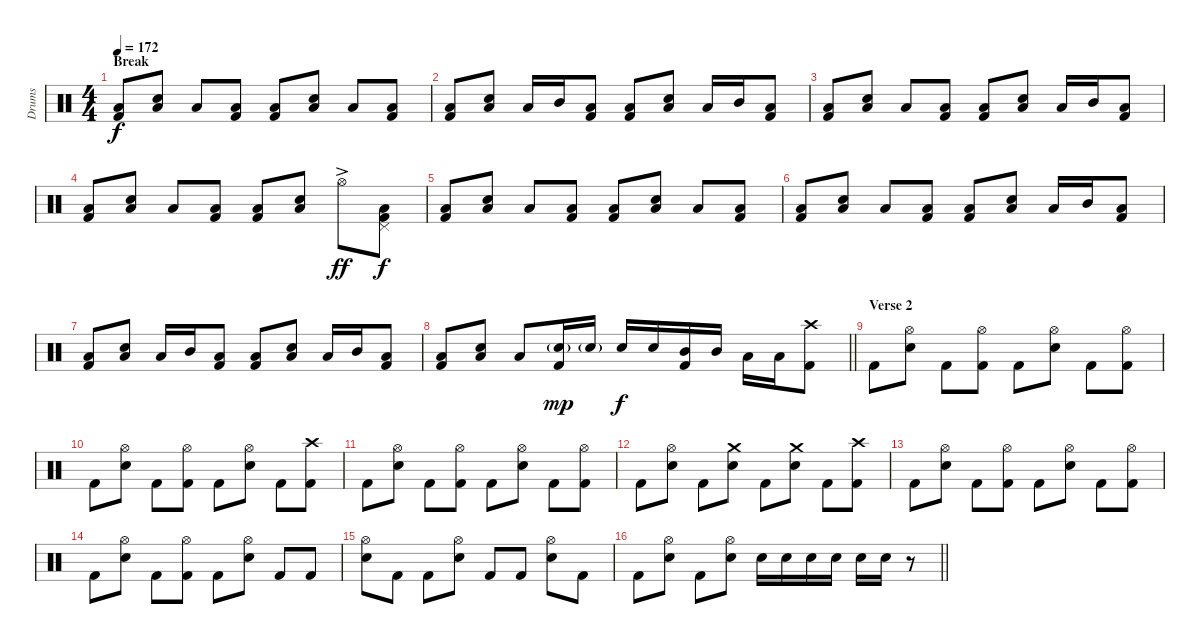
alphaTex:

\track ("Drums" "Drums") {instrument percussion}
\staff {score}
\articulation defaults
\ts (4 4)
\section ("" "Break")
\tempo 172
\clef neutral
\ks c
("Low Floor Tom (hit)" "Kick (hit) 2").8{dy f} ("Electric Snare (hit)" "Low Floor Tom (hit)").8 "Low Floor Tom (hit)".8 ("Low Floor Tom (hit)" "Kick (hit) 2").8 ("Low Floor Tom (hit)" "Kick (hit) 2").8 ("Electric Snare (hit)" "Low Floor Tom (hit)").8 "Low Floor Tom (hit)".8 ("Low Floor Tom (hit)" "Kick (hit) 2").8 |
("Low Floor Tom (hit)" "Kick (hit) 2").8 ("Electric Snare (hit)" "Low Floor Tom (hit)").8 "Low Floor Tom (hit)".16 "Mid Tom (hit)".16 ("Low Floor Tom (hit)" "Kick (hit) 2").8 ("Low Floor Tom (hit)" "Kick (hit) 2").8 ("Electric Snare (hit)" "Low Floor Tom (hit)").8 "Low Floor Tom (hit)".16 "Mid Tom (hit)".16 ("Low Floor Tom (hit)" "Kick (hit) 2").8 |
("Low Floor Tom (hit)" "Kick (hit) 2").8 ("Electric Snare (hit)" "Low Floor Tom (hit)").8 "Low Floor Tom (hit)".8 ("Low Floor Tom (hit)" "Kick (hit) 2").8 ("Low Floor Tom (hit)" "Kick (hit) 2").8 ("Electric Snare (hit)" "Low Floor Tom (hit)").8 "Low Floor Tom (hit)".16 "Mid Tom (hit)".16 ("Low Floor Tom (hit)" "Kick (hit) 2").8 |
("Low Floor Tom (hit)" "Kick (hit) 2").8 ("Electric Snare (hit)" "Low Floor Tom (hit)").8 "Low Floor Tom (hit)".8 ("Low Floor Tom (hit)" "Kick (hit) 2").8 ("Low Floor Tom (hit)" "Kick (hit) 2").8 ("Electric Snare (hit)" "Low Floor Tom (hit)").8 "Hi-Hat (open)"{ac}.8{dy ff} ("Pedal Hi-Hat (hit)" "Low Floor Tom (hit)" "Kick (hit) 2").8{dy f} |
("Low Floor Tom (hit)" "Kick (hit) 2").8 ("Electric Snare (hit)" "Low Floor Tom (hit)").8 "Low Floor Tom (hit)".8 ("Low Floor Tom (hit)" "Kick (hit) 2").8 ("Low Floor Tom (hit)" "Kick (hit) 2").8 ("Electric Snare (hit)" "Low Floor Tom (hit)").8 "Low Floor Tom (hit)".8 ("Low Floor Tom (hit)" "Kick (hit) 2").8 |
("Low Floor Tom (hit)" "Kick (hit) 2").8 ("Electric Snare (hit)" "Low Floor Tom (hit)").8 "Low Floor Tom (hit)".8 ("Low Floor Tom (hit)" "Kick (hit) 2").8 ("Low Floor Tom (hit)" "Kick (hit) 2").8 ("Electric Snare (hit)" "Low Floor Tom (hit)").8 "Low Floor Tom (hit)".16 "Mid Tom (hit)".16 ("Low Floor Tom (hit)" "Kick (hit) 2").8 |
("Low Floor Tom (hit)" "Kick (hit) 2").8 ("Electric Snare (hit)" "Low Floor Tom (hit)").8 "Low Floor Tom (hit)".16 "Mid Tom (hit)".16 ("Low Floor Tom (hit)" "Kick (hit) 2").8 ("Low Floor Tom (hit)" "Kick (hit) 2").8 ("Electric Snare (hit)" "Low Floor Tom (hit)").8 "Low Floor Tom (hit)".16 "Mid Tom (hit)".16 ("Low Floor Tom (hit)" "Kick (hit) 2").8 |
\barLineRight lightlight
("Low Floor Tom (hit)" "Kick (hit) 2").8 ("Electric Snare (hit)" "Low Floor Tom (hit)").8 "Low Floor Tom (hit)".8 ("Electric Snare (hit)"{g} "Kick (hit) 2").16{dy mp} "Electric Snare (hit)"{g}.16 "Electric Snare (hit)".16{dy f} "Electric Snare (hit)".16 ("Mid Tom (hit)" "Kick (hit) 2").16 "Mid Tom (hit)".16 "Low Tom (hit)".16 "Low Tom (hit)".16 ("Crash high (hit)" "Kick (hit) 2").8 |
\section ("" "Verse 2")
"Kick (hit) 2".8 ("Hi-Hat (open)" "Electric Snare (hit)").8 "Kick (hit) 2".8 ("Hi-Hat (open)" "Kick (hit) 2").8 "Kick (hit) 2".8 ("Hi-Hat (open)" "Electric Snare (hit)").8 "Kick (hit) 2".8 ("Hi-Hat (open)" "Kick (hit) 2").8 |
"Kick (hit) 2".8 ("Hi-Hat (open)" "Electric Snare (hit)").8 "Kick (hit) 2".8 ("Hi-Hat (open)" "Kick (hit) 2").8 "Kick (hit) 2".8 ("Hi-Hat (open)" "Electric Snare (hit)").8 "Kick (hit) 2".8 ("Crash high (hit)" "Kick (hit) 2").8 |
"Kick (hit) 2".8 ("Hi-Hat (open)" "Electric Snare (hit)").8 "Kick (hit) 2".8 ("Hi-Hat (open)" "Kick (hit) 2").8 "Kick (hit) 2".8 ("Hi-Hat (open)" "Electric Snare (hit)").8 "Kick (hit) 2".8 ("Hi-Hat (open)" "Kick (hit) 2").8 |
"Kick (hit) 2".8 ("Hi-Hat (open)" "Electric Snare (hit)").8 "Kick (hit) 2".8 ("Crash medium (hit)" "Electric Snare (hit)").8 "Kick (hit) 2".8 ("Crash medium (hit)" "Electric Snare (hit)").8 "Kick (hit) 2".8 ("Crash high (hit)" "Kick (hit) 2").8 |
"Kick (hit) 2".8 ("Hi-Hat (open)" "Electric Snare (hit)").8 "Kick (hit) 2".8 ("Hi-Hat (open)" "Kick (hit) 2").8 "Kick (hit) 2".8 ("Hi-Hat (open)" "Electric Snare (hit)").8 "Kick (hit) 2".8 ("Hi-Hat (open)" "Kick (hit) 2").8 |
"Kick (hit) 2".8 ("Hi-Hat (open)" "Electric Snare (hit)").8 "Kick (hit) 2".8 ("Hi-Hat (open)" "Kick (hit) 2").8 "Kick (hit) 2".8 ("Hi-Hat (open)" "Electric Snare (hit)").8 "Kick (hit) 2".8 "Kick (hit) 2".8 |
("Hi-Hat (open)" "Electric Snare (hit)").8 "Kick (hit) 2".8 "Kick (hit) 2".8 ("Hi-Hat (open)" "Electric Snare (hit)").8 "Kick (hit) 2".8 "Kick (hit) 2".8 ("Hi-Hat (open)" "Electric Snare (hit)").8 "Kick (hit) 2".8 |
\barLineRight lightlight "Kick (hit) 2".8
("Hi-Hat (open)" "Electric Snare (hit)").8 "Kick (hit) 2".8 ("Hi-Hat (open)" "Electric Snare (hit)").8 "Electric Snare (hit)".16 "Electric Snare (hit)".16 "Electric Snare (hit)".16 "Electric Snare (hit)".16 "Electric Snare (hit)".16 "Electric Snare (hit)".16 r.8
